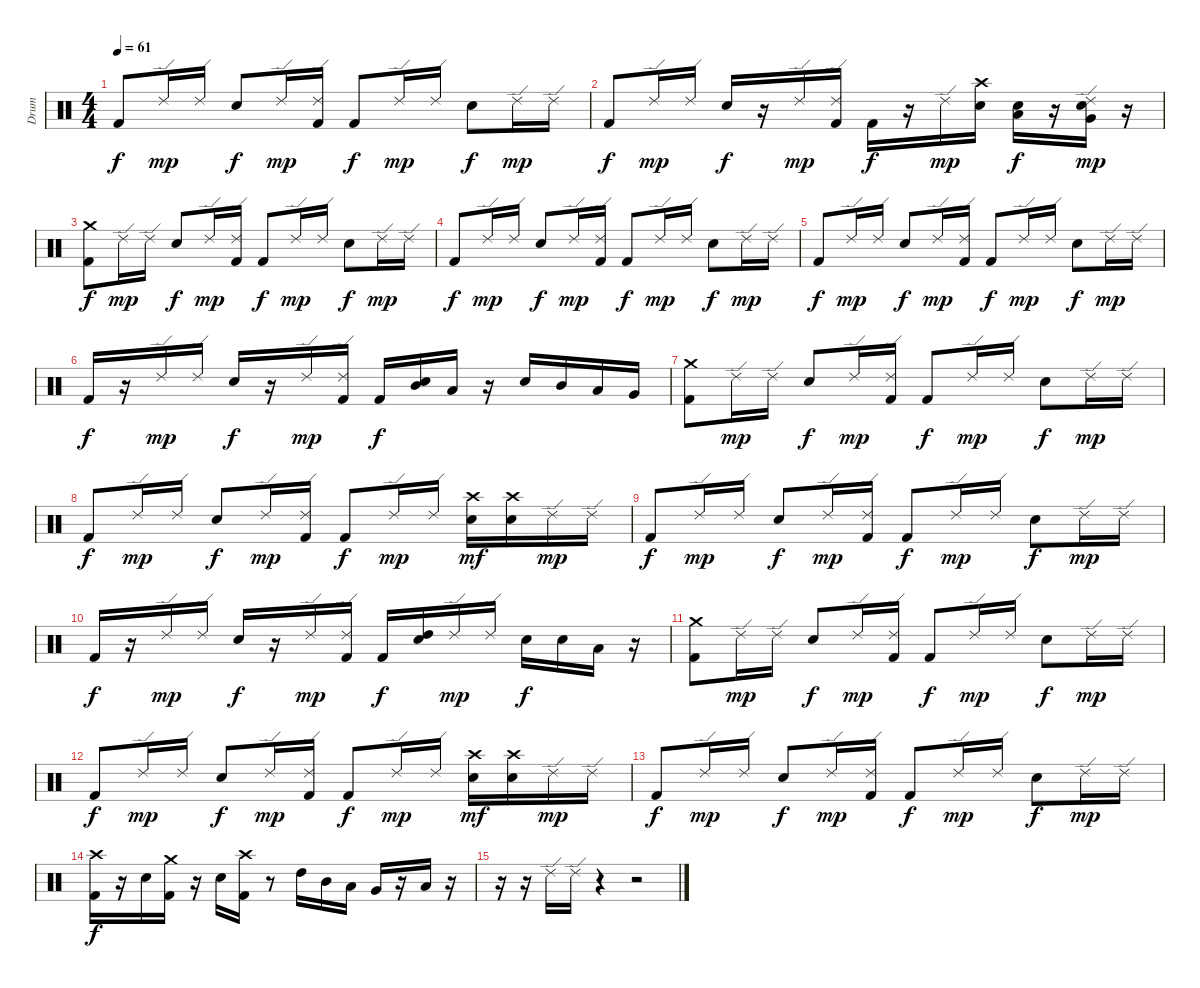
\track ("Drum" "Drum") {instrument percussion}
\staff {score}
\articulation defaults
\ts (4 4)
\tempo 61
\clef neutral
\ks c "Kick (hit) 2".8{dy f} "Ride (edge) 2".16{dy mp} "Ride (edge) 2".16 "Snare (hit) 2".8{dy f} "Ride (edge) 2".16{dy mp}
("Ride (edge) 2" "Kick (hit) 2").16 "Kick (hit) 2".8{dy f} "Ride (edge) 2".16{dy mp} "Ride (edge) 2".16 "Snare (hit) 2".8{dy f} "Ride (edge) 2".16{dy mp} "Ride (edge) 2".16 |
"Kick (hit) 2".8{dy f} "Ride (edge) 2".16{dy mp} "Ride (edge) 2".16 "Snare (hit) 2".16{dy f} r.16 "Ride (edge) 2".16{dy mp} ("Ride (edge) 2" "Kick (hit) 2").16 "Kick (hit) 2".16{dy f} r.16 "Ride (edge) 2".16{dy mp} ("Crash high (hit)" "Snare (hit) 2").16 ("Low Tom (hit)" "Snare (hit) 2").16{dy f} r.16 ("Ride (edge) 2" "Very Low Tom (hit)" "Snare (hit) 2").16{dy mp} r.16 |
("Crash medium (hit)" "Kick (hit) 2").8{dy f} "Ride (edge) 2".16{dy mp} "Ride (edge) 2".16 "Snare (hit) 2".8{dy f} "Ride (edge) 2".16{dy mp} ("Ride (edge) 2" "Kick (hit) 2").16 "Kick (hit) 2".8{dy f} "Ride (edge) 2".16{dy mp} "Ride (edge) 2".16 "Snare (hit) 2".8{dy f} "Ride (edge) 2".16{dy mp} "Ride (edge) 2".16 |
"Kick (hit) 2".8{dy f} "Ride (edge) 2".16{dy mp} "Ride (edge) 2".16 "Snare (hit) 2".8{dy f} "Ride (edge) 2".16{dy mp} ("Ride (edge) 2" "Kick (hit) 2").16 "Kick (hit) 2".8{dy f} "Ride (edge) 2".16{dy mp} "Ride (edge) 2".16 "Snare (hit) 2".8{dy f} "Ride (edge) 2".16{dy mp} "Ride (edge) 2".16 |
"Kick (hit) 2".8{dy f} "Ride (edge) 2".16{dy mp} "Ride (edge) 2".16 "Snare (hit) 2".8{dy f} "Ride (edge) 2".16{dy mp} ("Ride (edge) 2" "Kick (hit) 2").16 "Kick (hit) 2".8{dy f} "Ride (edge) 2".16{dy mp} "Ride (edge) 2".16 "Snare (hit) 2".8{dy f} "Ride (edge) 2".16{dy mp} "Ride (edge) 2".16 |
"Kick (hit) 2".16{dy f} r.16 "Ride (edge) 2".16{dy mp} "Ride (edge) 2".16 "Snare (hit) 2".16{dy f} r.16 "Ride (edge) 2".16{dy mp} ("Ride (edge) 2" "Kick (hit) 2").16 "Kick (hit) 2".16{dy f} ("Mid Tom (hit)" "Snare (hit) 2").16 "Low Tom (hit)".16 r.16 "Snare (hit) 2".16 "Mid Tom (hit)".16 "Low Tom (hit)".16 "Very Low Tom (hit)".16 |
("Crash medium (hit)" "Kick (hit) 2").8 "Ride (edge) 2".16{dy mp} "Ride (edge) 2".16 "Snare (hit) 2".8{dy f} "Ride (edge) 2".16{dy mp} ("Ride (edge) 2" "Kick (hit) 2").16 "Kick (hit) 2".8{dy f} "Ride (edge) 2".16{dy mp} "Ride (edge) 2".16 "Snare (hit) 2".8{dy f} "Ride (edge) 2".16{dy mp} "Ride (edge) 2".16 |
"Kick (hit) 2".8{dy f} "Ride (edge) 2".16{dy mp} "Ride (edge) 2".16 "Snare (hit) 2".8{dy f} "Ride (edge) 2".16{dy mp} ("Ride (edge) 2" "Kick (hit) 2").16 "Kick (hit) 2".8{dy f} "Ride (edge) 2".16{dy mp} "Ride (edge) 2".16 ("Crash high (hit)" "Snare (hit) 2").16{dy mf} ("Crash high (hit)" "Snare (hit) 2").16 "Ride (edge) 2".16{dy mp} "Ride (edge) 2".16 |
"Kick (hit) 2".8{dy f} "Ride (edge) 2".16{dy mp} "Ride (edge) 2".16 "Snare (hit) 2".8{dy f} "Ride (edge) 2".16{dy mp} ("Ride (edge) 2" "Kick (hit) 2").16 "Kick (hit) 2".8{dy f} "Ride (edge) 2".16{dy mp} "Ride (edge) 2".16 "Snare (hit) 2".8{dy f} "Ride (edge) 2".16{dy mp} "Ride (edge) 2".16 |
"Kick (hit) 2".16{dy f} r.16 "Ride (edge) 2".16{dy mp} "Ride (edge) 2".16 "Snare (hit) 2".16{dy f} r.16 "Ride (edge) 2".16{dy mp} ("Ride (edge) 2" "Kick (hit) 2").16 "Kick (hit) 2".16{dy f} ("High Tom (hit)" "Snare (hit) 2").16 "Ride (edge) 2".16{dy mp} "Ride (edge) 2".16 "Snare (hit) 2".16{dy f} "Snare (hit) 2".16 "Low Tom (hit)".16 r.16 |
("Crash medium (hit)" "Kick (hit) 2").8 "Ride (edge) 2".16{dy mp} "Ride (edge) 2".16 "Snare (hit) 2".8{dy f} "Ride (edge) 2".16{dy mp} ("Ride (edge) 2" "Kick (hit) 2").16 "Kick (hit) 2".8{dy f} "Ride (edge) 2".16{dy mp} "Ride (edge) 2".16 "Snare (hit) 2".8{dy f} "Ride (edge) 2".16{dy mp} "Ride (edge) 2".16 |
"Kick (hit) 2".8{dy f} "Ride (edge) 2".16{dy mp} "Ride (edge) 2".16 "Snare (hit) 2".8{dy f} "Ride (edge) 2".16{dy mp} ("Ride (edge) 2" "Kick (hit) 2").16 "Kick (hit) 2".8{dy f} "Ride (edge) 2".16{dy mp} "Ride (edge) 2".16 ("Crash high (hit)" "Snare (hit) 2").16{dy mf} ("Crash high (hit)" "Snare (hit) 2").16 "Ride (edge) 2".16{dy mp} "Ride (edge) 2".16 |
"Kick (hit) 2".8{dy f} "Ride (edge) 2".16{dy mp} "Ride (edge) 2".16 "Snare (hit) 2".8{dy f} "Ride (edge) 2".16{dy mp} ("Ride (edge) 2" "Kick (hit) 2").16 "Kick (hit) 2".8{dy f} "Ride (edge) 2".16{dy mp} "Ride (edge) 2".16 "Snare (hit) 2".8{dy f} "Ride (edge) 2".16{dy mp} "Ride (edge) 2".16 |
("Crash high (hit)" "Kick (hit) 2").16{dy f} r.16 "Snare (hit) 2".16 ("Crash medium (hit)" "Kick (hit) 2").16 r.16 "Snare (hit) 2".16 ("Crash high (hit)" "Kick (hit) 2").16 r.8 "High Tom (hit)".16 "Mid Tom (hit)".16 "Low Tom (hit)".16 "Very Low Tom (hit)".16 r.16 "Low Floor Tom (hit)".16 r.16 |
r.16 r.16 "Ride (edge) 2".16 "Ride (edge) 2".16 r.4 r.2
